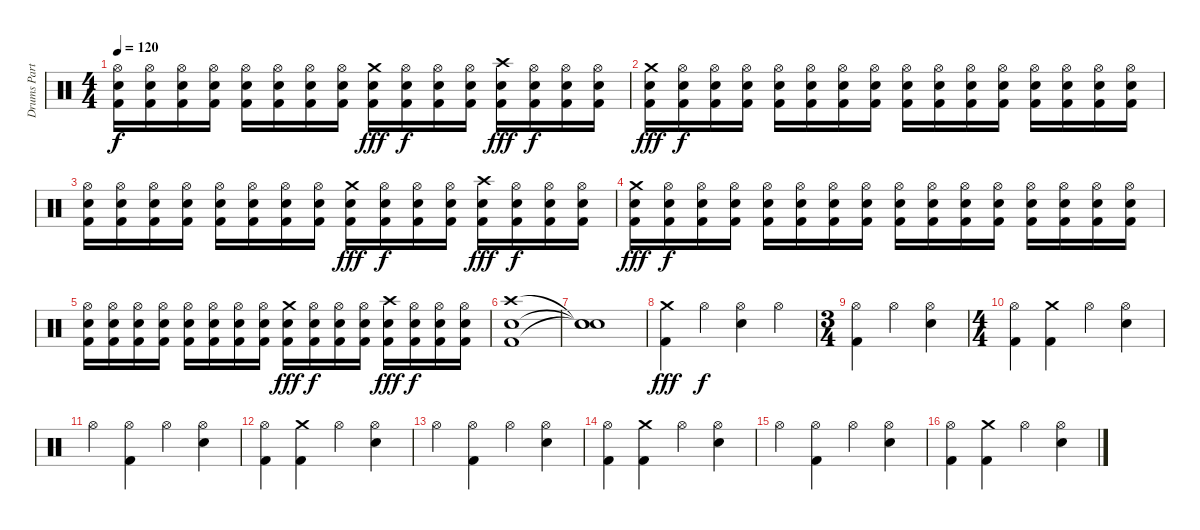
\track ("Drums Part" "Drums Part") {instrument percussion}
\staff {score}
\articulation defaults
\ts (4 4)
\tempo 120
\clef neutral
\ks c
("Hi-Hat (open)" "Electric Snare (hit)" "Kick (hit) 2").16{dy f} ("Hi-Hat (open)" "Electric Snare (hit)" "Kick (hit) 2").16 ("Hi-Hat (open)" "Electric Snare (hit)" "Kick (hit) 2").16 ("Hi-Hat (open)" "Electric Snare (hit)" "Kick (hit) 2").16 ("Hi-Hat (open)" "Electric Snare (hit)" "Kick (hit) 2").16 ("Hi-Hat (open)" "Electric Snare (hit)" "Kick (hit) 2").16 ("Hi-Hat (open)" "Electric Snare (hit)" "Kick (hit) 2").16 ("Hi-Hat (open)" "Electric Snare (hit)" "Kick (hit) 2").16 ("Crash medium (hit)" "Electric Snare (hit)" "Kick (hit) 2").16{dy fff} ("Hi-Hat (open)" "Electric Snare (hit)" "Kick (hit) 2").16{dy f} ("Hi-Hat (open)" "Electric Snare (hit)" "Kick (hit) 2").16 ("Hi-Hat (open)" "Electric Snare (hit)" "Kick (hit) 2").16 ("Crash high (hit)" "Electric Snare (hit)" "Kick (hit) 2").16{dy fff} ("Hi-Hat (open)" "Electric Snare (hit)" "Kick (hit) 2").16{dy f} ("Hi-Hat (open)" "Electric Snare (hit)" "Kick (hit) 2").16 ("Hi-Hat (open)" "Electric Snare (hit)" "Kick (hit) 2").16 |
("Crash medium (hit)" "Electric Snare (hit)" "Kick (hit) 2").16{dy fff} ("Hi-Hat (open)" "Electric Snare (hit)" "Kick (hit) 2").16{dy f} ("Hi-Hat (open)" "Electric Snare (hit)" "Kick (hit) 2").16 ("Hi-Hat (open)" "Electric Snare (hit)" "Kick (hit) 2").16 ("Hi-Hat (open)" "Electric Snare (hit)" "Kick (hit) 2").16 ("Hi-Hat (open)" "Electric Snare (hit)" "Kick (hit) 2").16 ("Hi-Hat (open)" "Electric Snare (hit)" "Kick (hit) 2").16 ("Hi-Hat (open)" "Electric Snare (hit)" "Kick (hit) 2").16 ("Hi-Hat (open)" "Electric Snare (hit)" "Kick (hit) 2").16 ("Hi-Hat (open)" "Electric Snare (hit)" "Kick (hit) 2").16 ("Hi-Hat (open)" "Electric Snare (hit)" "Kick (hit) 2").16 ("Hi-Hat (open)" "Electric Snare (hit)" "Kick (hit) 2").16 ("Hi-Hat (open)" "Electric Snare (hit)" "Kick (hit) 2").16 ("Hi-Hat (open)" "Electric Snare (hit)" "Kick (hit) 2").16 ("Hi-Hat (open)" "Electric Snare (hit)" "Kick (hit) 2").16 ("Hi-Hat (open)" "Electric Snare (hit)" "Kick (hit) 2").16 |
("Hi-Hat (open)" "Electric Snare (hit)" "Kick (hit) 2").16 ("Hi-Hat (open)" "Electric Snare (hit)" "Kick (hit) 2").16 ("Hi-Hat (open)" "Electric Snare (hit)" "Kick (hit) 2").16 ("Hi-Hat (open)" "Electric Snare (hit)" "Kick (hit) 2").16 ("Hi-Hat (open)" "Electric Snare (hit)" "Kick (hit) 2").16 ("Hi-Hat (open)" "Electric Snare (hit)" "Kick (hit) 2").16 ("Hi-Hat (open)" "Electric Snare (hit)" "Kick (hit) 2").16 ("Hi-Hat (open)" "Electric Snare (hit)" "Kick (hit) 2").16 ("Crash medium (hit)" "Electric Snare (hit)" "Kick (hit) 2").16{dy fff} ("Hi-Hat (open)" "Electric Snare (hit)" "Kick (hit) 2").16{dy f} ("Hi-Hat (open)" "Electric Snare (hit)" "Kick (hit) 2").16 ("Hi-Hat (open)" "Electric Snare (hit)" "Kick (hit) 2").16 ("Crash high (hit)" "Electric Snare (hit)" "Kick (hit) 2").16{dy fff} ("Hi-Hat (open)" "Electric Snare (hit)" "Kick (hit) 2").16{dy f} ("Hi-Hat (open)" "Electric Snare (hit)" "Kick (hit) 2").16 ("Hi-Hat (open)" "Electric Snare (hit)" "Kick (hit) 2").16 |
("Crash medium (hit)" "Electric Snare (hit)" "Kick (hit) 2").16{dy fff} ("Hi-Hat (open)" "Electric Snare (hit)" "Kick (hit) 2").16{dy f} ("Hi-Hat (open)" "Electric Snare (hit)" "Kick (hit) 2").16 ("Hi-Hat (open)" "Electric Snare (hit)" "Kick (hit) 2").16 ("Hi-Hat (open)" "Electric Snare (hit)" "Kick (hit) 2").16 ("Hi-Hat (open)" "Electric Snare (hit)" "Kick (hit) 2").16 ("Hi-Hat (open)" "Electric Snare (hit)" "Kick (hit) 2").16 ("Hi-Hat (open)" "Electric Snare (hit)" "Kick (hit) 2").16 ("Hi-Hat (open)" "Electric Snare (hit)" "Kick (hit) 2").16 ("Hi-Hat (open)" "Electric Snare (hit)" "Kick (hit) 2").16 ("Hi-Hat (open)" "Electric Snare (hit)" "Kick (hit) 2").16 ("Hi-Hat (open)" "Electric Snare (hit)" "Kick (hit) 2").16 ("Hi-Hat (open)" "Electric Snare (hit)" "Kick (hit) 2").16 ("Hi-Hat (open)" "Electric Snare (hit)" "Kick (hit) 2").16 ("Hi-Hat (open)" "Electric Snare (hit)" "Kick (hit) 2").16 ("Hi-Hat (open)" "Electric Snare (hit)" "Kick (hit) 2").16 |
("Hi-Hat (open)" "Electric Snare (hit)" "Kick (hit) 2").16 ("Hi-Hat (open)" "Electric Snare (hit)" "Kick (hit) 2").16 ("Hi-Hat (open)" "Electric Snare (hit)" "Kick (hit) 2").16 ("Hi-Hat (open)" "Electric Snare (hit)" "Kick (hit) 2").16 ("Hi-Hat (open)" "Electric Snare (hit)" "Kick (hit) 2").16 ("Hi-Hat (open)" "Electric Snare (hit)" "Kick (hit) 2").16 ("Hi-Hat (open)" "Electric Snare (hit)" "Kick (hit) 2").16 ("Hi-Hat (open)" "Electric Snare (hit)" "Kick (hit) 2").16 ("Crash medium (hit)" "Electric Snare (hit)" "Kick (hit) 2").16{dy fff} ("Hi-Hat (open)" "Electric Snare (hit)" "Kick (hit) 2").16{dy f} ("Hi-Hat (open)" "Electric Snare (hit)" "Kick (hit) 2").16 ("Hi-Hat (open)" "Electric Snare (hit)" "Kick (hit) 2").16 ("Crash high (hit)" "Electric Snare (hit)" "Kick (hit) 2").16{dy fff} ("Hi-Hat (open)" "Electric Snare (hit)" "Kick (hit) 2").16{dy f} ("Hi-Hat (open)" "Electric Snare (hit)" "Kick (hit) 2").16 ("Hi-Hat (open)" "Electric Snare (hit)" "Kick (hit) 2").16 |
("Crash high (hit)" "Electric Snare (hit)" "Kick (hit) 2").1 |
("Snare (hit)"{t} "Snare (hit)"{t} "Snare (hit)"{t}).1 |
("Crash medium (hit)" "Kick (hit) 2").4{dy fff} "Hi-Hat (open)".4{dy f} ("Hi-Hat (open)" "Electric Snare (hit)").4 "Hi-Hat (open)".4 |
\ts (3 4)
("Hi-Hat (open)" "Kick (hit) 2").4 "Hi-Hat (open)".4 ("Hi-Hat (open)" "Electric Snare (hit)").4 |
\ts (4 4)
("Hi-Hat (open)" "Kick (hit) 2").4 ("Crash medium (hit)" "Kick (hit) 2").4 "Hi-Hat (open)".4 ("Hi-Hat (open)" "Electric Snare (hit)").4 |
"Hi-Hat (open)".4 ("Hi-Hat (open)" "Kick (hit) 2").4 "Hi-Hat (open)".4 ("Hi-Hat (open)" "Electric Snare (hit)").4 |
("Hi-Hat (open)" "Kick (hit) 2").4 ("Crash medium (hit)" "Kick (hit) 2").4 "Hi-Hat (open)".4 ("Hi-Hat (open)" "Electric Snare (hit)").4 |
"Hi-Hat (open)".4 ("Hi-Hat (open)" "Kick (hit) 2").4 "Hi-Hat (open)".4 ("Hi-Hat (open)" "Electric Snare (hit)").4 |
("Hi-Hat (open)" "Kick (hit) 2").4 ("Crash medium (hit)" "Kick (hit) 2").4 "Hi-Hat (open)".4 ("Hi-Hat (open)" "Electric Snare (hit)").4 |
"Hi-Hat (open)".4 ("Hi-Hat (open)" "Kick (hit) 2").4 "Hi-Hat (open)".4 ("Hi-Hat (open)" "Electric Snare (hit)").4 |
("Hi-Hat (open)" "Kick (hit) 2").4 ("Crash medium (hit)" "Kick (hit) 2").4 "Hi-Hat (open)".4 ("Hi-Hat (open)" "Electric Snare (hit)").4
